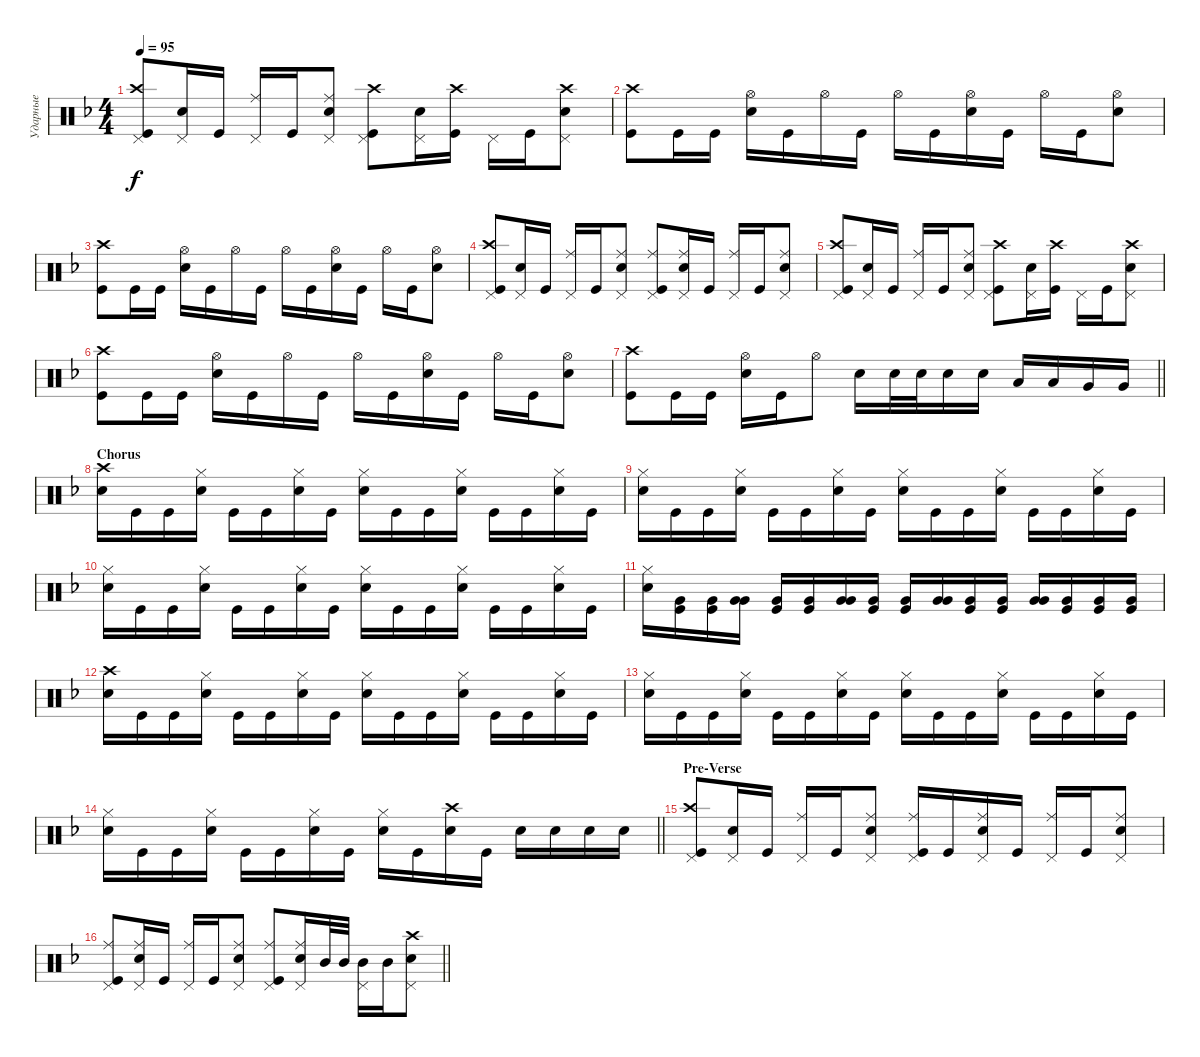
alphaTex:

\track ("Ударные" "Ударные") {instrument percussion}
\staff {score}
\articulation defaults
\ts (4 4)
\tempo 95
\clef neutral
\ks dminor
("Kick (hit)" "Crash high (hit)" "Pedal Hi-Hat (hit)").8{dy f} ("Snare (hit) 2" "Pedal Hi-Hat (hit)").16 "Kick (hit)".16 ("Pedal Hi-Hat (hit)" "Ride (middle)").16 "Kick (hit)".16 ("Snare (hit) 2" "Pedal Hi-Hat (hit)" "Ride (middle)").8 ("Kick (hit)" "Pedal Hi-Hat (hit)" "Crash high (hit)").8 ("Snare (hit) 2" "Pedal Hi-Hat (hit)").16 ("Kick (hit)" "Crash high (hit)").16 "Pedal Hi-Hat (hit)".16 "Kick (hit)".16 ("Snare (hit) 2" "Pedal Hi-Hat (hit)" "Crash high (hit)").8 |
("Kick (hit)" "Crash high (hit)").8 "Kick (hit)".16 "Kick (hit)".16 ("Snare (hit) 2" "Hi-Hat (open)").16 "Kick (hit)".16 "Hi-Hat (open)".16 "Kick (hit)".16 "Hi-Hat (open)".16 "Kick (hit)".16 ("Snare (hit) 2" "Hi-Hat (open)").16 "Kick (hit)".16 "Hi-Hat (open)".16 "Kick (hit)".16 ("Snare (hit) 2" "Hi-Hat (open)").8 |
("Kick (hit)" "Crash high (hit)").8 "Kick (hit)".16 "Kick (hit)".16 ("Snare (hit) 2" "Hi-Hat (open)").16 "Kick (hit)".16 "Hi-Hat (open)".16 "Kick (hit)".16 "Hi-Hat (open)".16 "Kick (hit)".16 ("Snare (hit) 2" "Hi-Hat (open)").16 "Kick (hit)".16 "Hi-Hat (open)".16 "Kick (hit)".16 ("Snare (hit) 2" "Hi-Hat (open)").8 |
("Kick (hit)" "Crash high (hit)" "Pedal Hi-Hat (hit)").8 ("Snare (hit) 2" "Pedal Hi-Hat (hit)").16 "Kick (hit)".16 ("Pedal Hi-Hat (hit)" "Ride (middle)").16 "Kick (hit)".16 ("Snare (hit) 2" "Pedal Hi-Hat (hit)" "Ride (middle)").8 ("Kick (hit)" "Pedal Hi-Hat (hit)" "Ride (middle)").8 ("Snare (hit) 2" "Pedal Hi-Hat (hit)" "Ride (middle)").16 "Kick (hit)".16 ("Pedal Hi-Hat (hit)" "Ride (middle)").16 "Kick (hit)".16 ("Snare (hit) 2" "Pedal Hi-Hat (hit)" "Ride (middle)").8 |
("Kick (hit)" "Crash high (hit)" "Pedal Hi-Hat (hit)").8 ("Snare (hit) 2" "Pedal Hi-Hat (hit)").16 "Kick (hit)".16 ("Pedal Hi-Hat (hit)" "Ride (middle)").16 "Kick (hit)".16 ("Snare (hit) 2" "Pedal Hi-Hat (hit)" "Ride (middle)").8 ("Kick (hit)" "Pedal Hi-Hat (hit)" "Crash high (hit)").8 ("Snare (hit) 2" "Pedal Hi-Hat (hit)").16 ("Kick (hit)" "Crash high (hit)").16 "Pedal Hi-Hat (hit)".16 "Kick (hit)".16 ("Snare (hit) 2" "Pedal Hi-Hat (hit)" "Crash high (hit)").8 |
("Kick (hit)" "Crash high (hit)").8 "Kick (hit)".16 "Kick (hit)".16 ("Snare (hit) 2" "Hi-Hat (open)").16 "Kick (hit)".16 "Hi-Hat (open)".16 "Kick (hit)".16 "Hi-Hat (open)".16 "Kick (hit)".16 ("Snare (hit) 2" "Hi-Hat (open)").16 "Kick (hit)".16 "Hi-Hat (open)".16 "Kick (hit)".16 ("Snare (hit) 2" "Hi-Hat (open)").8 |
\barLineRight lightlight
("Kick (hit)" "Crash high (hit)").8 "Kick (hit)".16 "Kick (hit)".16 ("Snare (hit) 2" "Hi-Hat (open)").16 "Kick (hit)".16 "Hi-Hat (open)".8 "Snare (hit) 2".16 "Snare (hit) 2".32 "Snare (hit) 2".32 "Snare (hit) 2".16 "Snare (hit) 2".16 "Low Tom (hit)".16 "Low Tom (hit)".16 "Very Low Tom (hit)".16 "Very Low Tom (hit)".16 |
\section ("" "Chorus")
("Snare (hit) 2" "Crash high (hit)").16 "Kick (hit)".16 "Kick (hit)".16 ("Snare (hit) 2" "Hi-Hat (closed)").16 "Kick (hit)".16 "Kick (hit)".16 ("Snare (hit) 2" "Hi-Hat (closed)").16 "Kick (hit)".16 ("Snare (hit) 2" "Hi-Hat (closed)").16 "Kick (hit)".16 "Kick (hit)".16 ("Snare (hit) 2" "Hi-Hat (closed)").16 "Kick (hit)".16 "Kick (hit)".16 ("Snare (hit) 2" "Hi-Hat (closed)").16 "Kick (hit)".16 |
("Snare (hit) 2" "Hi-Hat (closed)").16 "Kick (hit)".16 "Kick (hit)".16 ("Snare (hit) 2" "Hi-Hat (closed)").16 "Kick (hit)".16 "Kick (hit)".16 ("Snare (hit) 2" "Hi-Hat (closed)").16 "Kick (hit)".16 ("Snare (hit) 2" "Hi-Hat (closed)").16 "Kick (hit)".16 "Kick (hit)".16 ("Snare (hit) 2" "Hi-Hat (closed)").16 "Kick (hit)".16 "Kick (hit)".16 ("Snare (hit) 2" "Hi-Hat (closed)").16 "Kick (hit)".16 |
("Snare (hit) 2" "Hi-Hat (closed)").16 "Kick (hit)".16 "Kick (hit)".16 ("Snare (hit) 2" "Hi-Hat (closed)").16 "Kick (hit)".16 "Kick (hit)".16 ("Snare (hit) 2" "Hi-Hat (closed)").16 "Kick (hit)".16 ("Snare (hit) 2" "Hi-Hat (closed)").16 "Kick (hit)".16 "Kick (hit)".16 ("Snare (hit) 2" "Hi-Hat (closed)").16 "Kick (hit)".16 "Kick (hit)".16 ("Snare (hit) 2" "Hi-Hat (closed)").16 "Kick (hit)".16 |
("Snare (hit) 2" "Hi-Hat (closed)").16 ("Kick (hit)" "Very Low Tom (hit)").16 ("Kick (hit)" "Very Low Tom (hit)").16 ("Very Low Tom (hit)" "Very Low Tom (hit)").16{bd 240} ("Kick (hit)" "Very Low Tom (hit)").16 ("Kick (hit)" "Very Low Tom (hit)").16 ("Very Low Tom (hit)" "Very Low Tom (hit)").16{bd 240} ("Kick (hit)" "Very Low Tom (hit)").16 ("Kick (hit)" "Very Low Tom (hit)").16 ("Very Low Tom (hit)" "Very Low Tom (hit)").16{bd 240} ("Kick (hit)" "Very Low Tom (hit)").16 ("Kick (hit)" "Very Low Tom (hit)").16 ("Very Low Tom (hit)" "Very Low Tom (hit)").16{bd 240} ("Kick (hit)" "Very Low Tom (hit)").16 ("Kick (hit)" "Very Low Tom (hit)").16 ("Very Low Tom (hit)" "Kick (hit)").16 |
("Snare (hit) 2" "Crash high (hit)").16 "Kick (hit)".16 "Kick (hit)".16 ("Snare (hit) 2" "Hi-Hat (closed)").16 "Kick (hit)".16 "Kick (hit)".16 ("Snare (hit) 2" "Hi-Hat (closed)").16 "Kick (hit)".16 ("Snare (hit) 2" "Hi-Hat (closed)").16 "Kick (hit)".16 "Kick (hit)".16 ("Snare (hit) 2" "Hi-Hat (closed)").16 "Kick (hit)".16 "Kick (hit)".16 ("Snare (hit) 2" "Hi-Hat (closed)").16 "Kick (hit)".16 |
("Snare (hit) 2" "Hi-Hat (closed)").16 "Kick (hit)".16 "Kick (hit)".16 ("Snare (hit) 2" "Hi-Hat (closed)").16 "Kick (hit)".16 "Kick (hit)".16 ("Snare (hit) 2" "Hi-Hat (closed)").16 "Kick (hit)".16 ("Snare (hit) 2" "Hi-Hat (closed)").16 "Kick (hit)".16 "Kick (hit)".16 ("Snare (hit) 2" "Hi-Hat (closed)").16 "Kick (hit)".16 "Kick (hit)".16 ("Snare (hit) 2" "Hi-Hat (closed)").16 "Kick (hit)".16 |
\barLineRight lightlight
("Snare (hit) 2" "Hi-Hat (closed)").16 "Kick (hit)".16 "Kick (hit)".16 ("Snare (hit) 2" "Hi-Hat (closed)").16 "Kick (hit)".16 "Kick (hit)".16 ("Snare (hit) 2" "Hi-Hat (closed)").16 "Kick (hit)".16 ("Snare (hit) 2" "Hi-Hat (closed)").16 "Kick (hit)".16 ("Snare (hit) 2" "Crash high (hit)").16 "Kick (hit)".16 "Snare (hit) 2".16 "Snare (hit) 2".16 "Snare (hit) 2".16 "Snare (hit) 2".16 |
\section ("" "Pre-Verse")
("Kick (hit)" "Crash high (hit)" "Pedal Hi-Hat (hit)").8 ("Snare (hit) 2" "Pedal Hi-Hat (hit)").16 "Kick (hit)".16 ("Pedal Hi-Hat (hit)" "Ride (middle)").16 "Kick (hit)".16 ("Snare (hit) 2" "Pedal Hi-Hat (hit)" "Ride (middle)").8 ("Kick (hit)" "Pedal Hi-Hat (hit)" "Ride (middle)").16 "Kick (hit)".16 ("Snare (hit) 2" "Pedal Hi-Hat (hit)" "Ride (middle)").16 "Kick (hit)".16 ("Pedal Hi-Hat (hit)" "Ride (middle)").16 "Kick (hit)".16 ("Snare (hit) 2" "Pedal Hi-Hat (hit)" "Ride (middle)").8 |
\barLineRight lightlight
("Kick (hit)" "Ride (middle)" "Pedal Hi-Hat (hit)").8 ("Snare (hit) 2" "Pedal Hi-Hat (hit)" "Ride (middle)").16 "Kick (hit)".16 ("Pedal Hi-Hat (hit)" "Ride (middle)").16 "Kick (hit)".16 ("Snare (hit) 2" "Pedal Hi-Hat (hit)" "Ride (middle)").8 ("Kick (hit)" "Pedal Hi-Hat (hit)" "Ride (middle)").8 ("Snare (hit) 2" "Pedal Hi-Hat (hit)" "Ride (middle)").16 "Mid Tom (hit)".32 "Mid Tom (hit)".32 ("Mid Tom (hit)" "Pedal Hi-Hat (hit)").16 "Mid Tom (hit)".16 ("Snare (hit) 2" "Crash high (hit)" "Pedal Hi-Hat (hit)").8
